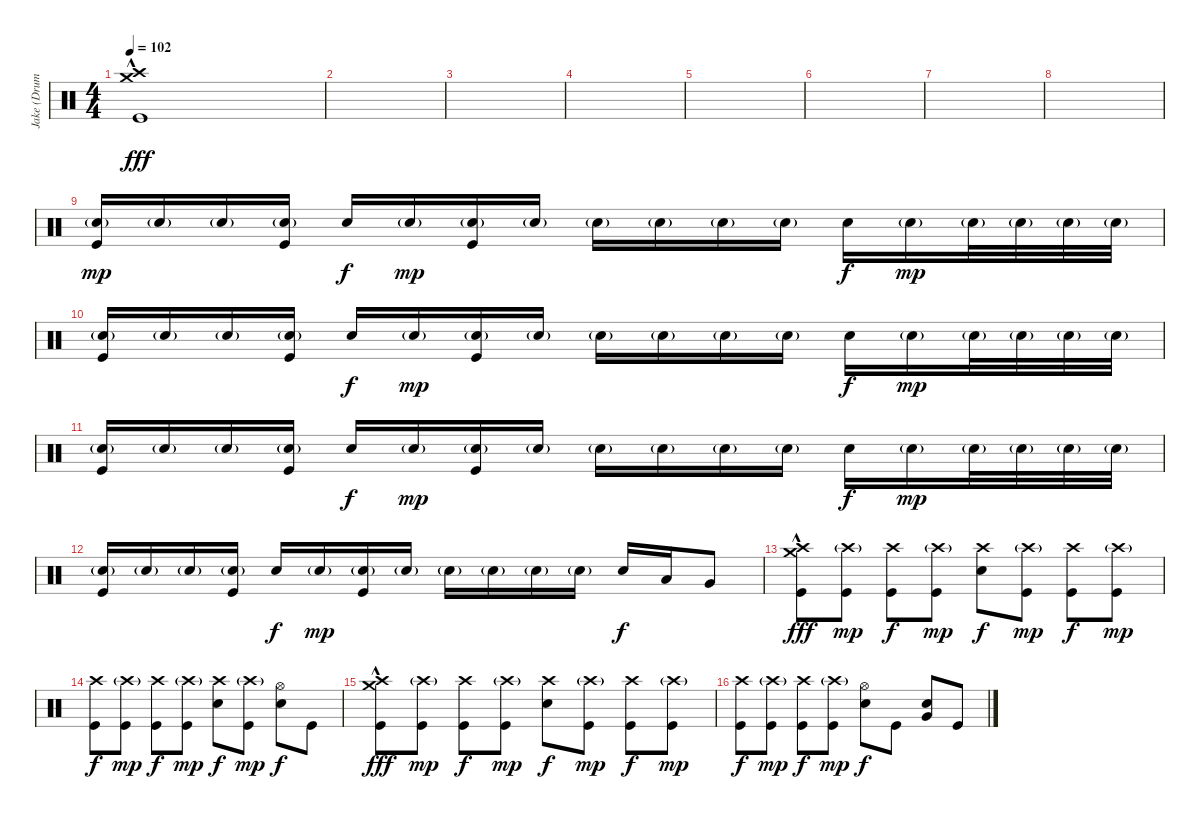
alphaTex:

\track ("Jake (Drums)" "Jake (Drum") {instrument percussion}
\staff {score}
\articulation defaults
\ts (4 4)
\tempo 102
\clef neutral
\ks c
("Crash high (hit)"{hac} "Crash medium (hit)" "Kick (hit)").1{dy fff} |
|
|
|
|
|
|
|
("Snare (hit) 2"{g} "Kick (hit)").16{dy mp} "Snare (hit) 2"{g}.16 "Snare (hit) 2"{g}.16 ("Snare (hit) 2"{g} "Kick (hit)").16 "Snare (hit) 2".16{dy f} "Snare (hit) 2"{g}.16{dy mp} ("Snare (hit) 2"{g} "Kick (hit)").16 "Snare (hit) 2"{g}.16 "Snare (hit) 2"{g}.16 "Snare (hit) 2"{g}.16 "Snare (hit) 2"{g}.16 "Snare (hit) 2"{g}.16 "Snare (hit) 2".16{dy f} "Snare (hit) 2"{g}.16{dy mp} "Snare (hit) 2"{g}.32 "Snare (hit) 2"{g}.32 "Snare (hit) 2"{g}.32 "Snare (hit) 2"{g}.32 |
("Snare (hit) 2"{g} "Kick (hit)").16 "Snare (hit) 2"{g}.16 "Snare (hit) 2"{g}.16 ("Snare (hit) 2"{g} "Kick (hit)").16 "Snare (hit) 2".16{dy f} "Snare (hit) 2"{g}.16{dy mp} ("Snare (hit) 2"{g} "Kick (hit)").16 "Snare (hit) 2"{g}.16 "Snare (hit) 2"{g}.16 "Snare (hit) 2"{g}.16 "Snare (hit) 2"{g}.16 "Snare (hit) 2"{g}.16 "Snare (hit) 2".16{dy f} "Snare (hit) 2"{g}.16{dy mp} "Snare (hit) 2"{g}.32 "Snare (hit) 2"{g}.32 "Snare (hit) 2"{g}.32 "Snare (hit) 2"{g}.32 |
("Snare (hit) 2"{g} "Kick (hit)").16 "Snare (hit) 2"{g}.16 "Snare (hit) 2"{g}.16 ("Snare (hit) 2"{g} "Kick (hit)").16 "Snare (hit) 2".16{dy f} "Snare (hit) 2"{g}.16{dy mp} ("Snare (hit) 2"{g} "Kick (hit)").16 "Snare (hit) 2"{g}.16 "Snare (hit) 2"{g}.16 "Snare (hit) 2"{g}.16 "Snare (hit) 2"{g}.16 "Snare (hit) 2"{g}.16 "Snare (hit) 2".16{dy f} "Snare (hit) 2"{g}.16{dy mp} "Snare (hit) 2"{g}.32 "Snare (hit) 2"{g}.32 "Snare (hit) 2"{g}.32 "Snare (hit) 2"{g}.32 |
("Snare (hit) 2"{g} "Kick (hit)").16 "Snare (hit) 2"{g}.16 "Snare (hit) 2"{g}.16 ("Snare (hit) 2"{g} "Kick (hit)").16 "Snare (hit) 2".16{dy f} "Snare (hit) 2"{g}.16{dy mp} ("Snare (hit) 2"{g} "Kick (hit)").16 "Snare (hit) 2"{g}.16 "Snare (hit) 2"{g}.16 "Snare (hit) 2"{g}.16 "Snare (hit) 2"{g}.16 "Snare (hit) 2"{g}.16 "Snare (hit) 2".16{dy f} "Low Tom (hit)".16 "Very Low Tom (hit)".8 |
("Crash high (hit)"{hac} "Crash medium (hit)" "Kick (hit)").8{dy fff} ("Crash high (hit)"{g} "Kick (hit)").8{dy mp} ("Crash high (hit)" "Kick (hit)").8{dy f} ("Crash high (hit)"{g} "Kick (hit)").8{dy mp} ("Crash high (hit)" "Snare (hit) 2").8{dy f} ("Crash high (hit)"{g} "Kick (hit)").8{dy mp} ("Crash high (hit)" "Kick (hit)").8{dy f} ("Crash high (hit)"{g} "Kick (hit)").8{dy mp} |
("Crash high (hit)" "Kick (hit)").8{dy f} ("Crash high (hit)"{g} "Kick (hit)").8{dy mp} ("Crash high (hit)" "Kick (hit)").8{dy f} ("Crash high (hit)"{g} "Kick (hit)").8{dy mp} ("Crash high (hit)" "Snare (hit) 2").8{dy f} ("Crash high (hit)"{g} "Kick (hit)").8{dy mp} ("Hi-Hat (open)" "Snare (hit) 2").8{dy f} "Kick (hit)".8 |
("Crash high (hit)"{hac} "Crash medium (hit)" "Kick (hit)").8{dy fff} ("Crash high (hit)"{g} "Kick (hit)").8{dy mp} ("Crash high (hit)" "Kick (hit)").8{dy f} ("Crash high (hit)"{g} "Kick (hit)").8{dy mp} ("Crash high (hit)" "Snare (hit) 2").8{dy f} ("Crash high (hit)"{g} "Kick (hit)").8{dy mp} ("Crash high (hit)" "Kick (hit)").8{dy f} ("Crash high (hit)"{g} "Kick (hit)").8{dy mp} |
("Crash high (hit)" "Kick (hit)").8{dy f} ("Crash high (hit)"{g} "Kick (hit)").8{dy mp} ("Crash high (hit)" "Kick (hit)").8{dy f} ("Crash high (hit)"{g} "Kick (hit)").8{dy mp} ("Hi-Hat (open)" "Snare (hit) 2").8{dy f} "Kick (hit)".8 ("Snare (hit) 2" "Very Low Tom (hit)").8 "Kick (hit)".8
